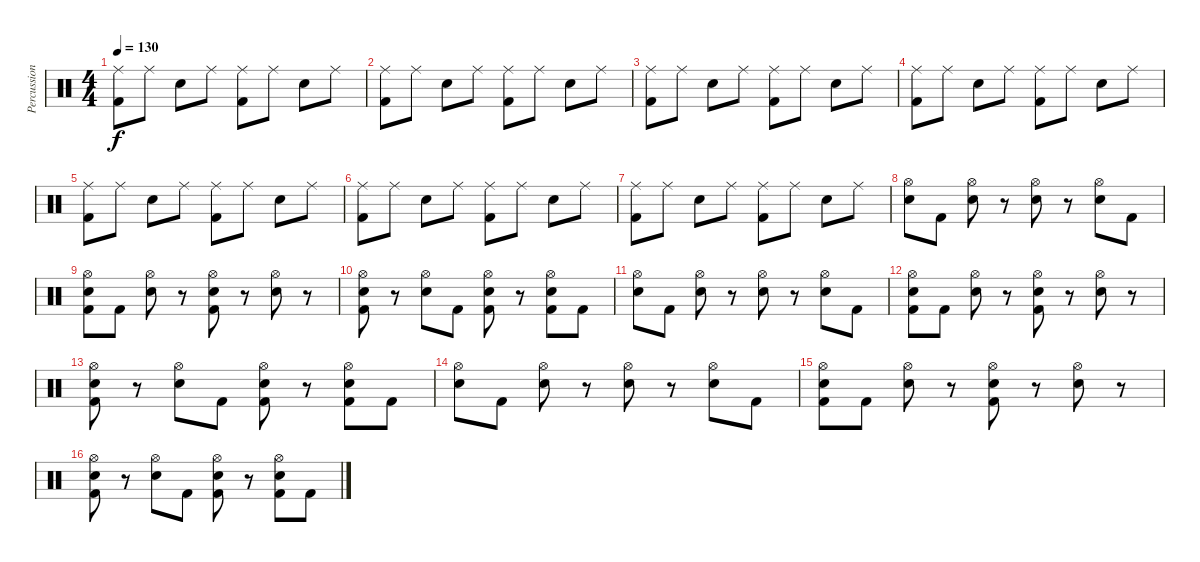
\track ("Percussion" "Percussion") {instrument percussion}
\staff {score}
\articulation defaults
\ts (4 4)
\tempo 130
\clef neutral
\ks c
("Ride (middle)" "Kick (hit) 2").8{dy f} "Ride (middle)".8 "Snare (hit) 2".8 "Ride (middle)".8 ("Ride (middle)" "Kick (hit) 2").8 "Ride (middle)".8 "Snare (hit) 2".8 "Ride (middle)".8 |
("Ride (middle)" "Kick (hit) 2").8 "Ride (middle)".8 "Snare (hit) 2".8 "Ride (middle)".8 ("Ride (middle)" "Kick (hit) 2").8 "Ride (middle)".8 "Snare (hit) 2".8 "Ride (middle)".8 |
("Ride (middle)" "Kick (hit) 2").8 "Ride (middle)".8 "Snare (hit) 2".8 "Ride (middle)".8 ("Ride (middle)" "Kick (hit) 2").8 "Ride (middle)".8 "Snare (hit) 2".8 "Ride (middle)".8 |
("Ride (middle)" "Kick (hit) 2").8 "Ride (middle)".8 "Snare (hit) 2".8 "Ride (middle)".8 ("Ride (middle)" "Kick (hit) 2").8 "Ride (middle)".8 "Snare (hit) 2".8 "Ride (middle)".8 |
("Ride (middle)" "Kick (hit) 2").8 "Ride (middle)".8 "Snare (hit) 2".8 "Ride (middle)".8 ("Ride (middle)" "Kick (hit) 2").8 "Ride (middle)".8 "Snare (hit) 2".8 "Ride (middle)".8 |
("Ride (middle)" "Kick (hit) 2").8 "Ride (middle)".8 "Snare (hit) 2".8 "Ride (middle)".8 ("Ride (middle)" "Kick (hit) 2").8 "Ride (middle)".8 "Snare (hit) 2".8 "Ride (middle)".8 |
("Ride (middle)" "Kick (hit) 2").8 "Ride (middle)".8 "Snare (hit) 2".8 "Ride (middle)".8 ("Ride (middle)" "Kick (hit) 2").8 "Ride (middle)".8 "Snare (hit) 2".8 "Ride (middle)".8 |
("Hi-Hat (open)" "Snare (hit) 2").8 "Kick (hit) 2".8 ("Hi-Hat (open)" "Snare (hit) 2").8 r.8 ("Hi-Hat (open)" "Snare (hit) 2").8 r.8 ("Hi-Hat (open)" "Snare (hit) 2").8 "Kick (hit) 2".8 |
("Hi-Hat (open)" "Snare (hit) 2" "Kick (hit) 2").8 "Kick (hit) 2".8 ("Hi-Hat (open)" "Snare (hit) 2").8 r.8 ("Hi-Hat (open)" "Snare (hit) 2" "Kick (hit) 2").8 r.8 ("Hi-Hat (open)" "Snare (hit) 2").8 r.8 |
("Hi-Hat (open)" "Snare (hit) 2" "Kick (hit) 2").8 r.8 ("Hi-Hat (open)" "Snare (hit) 2").8 "Kick (hit) 2".8 ("Hi-Hat (open)" "Snare (hit) 2" "Kick (hit) 2").8 r.8 ("Hi-Hat (open)" "Snare (hit) 2" "Kick (hit) 2").8 "Kick (hit) 2".8 |
("Hi-Hat (open)" "Snare (hit) 2").8 "Kick (hit) 2".8 ("Hi-Hat (open)" "Snare (hit) 2").8 r.8 ("Hi-Hat (open)" "Snare (hit) 2").8 r.8 ("Hi-Hat (open)" "Snare (hit) 2").8 "Kick (hit) 2".8 |
("Hi-Hat (open)" "Snare (hit) 2" "Kick (hit) 2").8 "Kick (hit) 2".8 ("Hi-Hat (open)" "Snare (hit) 2").8 r.8 ("Hi-Hat (open)" "Snare (hit) 2" "Kick (hit) 2").8 r.8 ("Hi-Hat (open)" "Snare (hit) 2").8 r.8 |
("Hi-Hat (open)" "Snare (hit) 2" "Kick (hit) 2").8 r.8 ("Hi-Hat (open)" "Snare (hit) 2").8 "Kick (hit) 2".8 ("Hi-Hat (open)" "Snare (hit) 2" "Kick (hit) 2").8 r.8 ("Hi-Hat (open)" "Snare (hit) 2" "Kick (hit) 2").8 "Kick (hit) 2".8 |
("Hi-Hat (open)" "Snare (hit) 2").8 "Kick (hit) 2".8 ("Hi-Hat (open)" "Snare (hit) 2").8 r.8 ("Hi-Hat (open)" "Snare (hit) 2").8 r.8 ("Hi-Hat (open)" "Snare (hit) 2").8 "Kick (hit) 2".8 |
("Hi-Hat (open)" "Snare (hit) 2" "Kick (hit) 2").8 "Kick (hit) 2".8 ("Hi-Hat (open)" "Snare (hit) 2").8 r.8 ("Hi-Hat (open)" "Snare (hit) 2" "Kick (hit) 2").8 r.8 ("Hi-Hat (open)" "Snare (hit) 2").8 r.8 |
("Hi-Hat (open)" "Snare (hit) 2" "Kick (hit) 2").8 r.8 ("Hi-Hat (open)" "Snare (hit) 2").8 "Kick (hit) 2".8 ("Hi-Hat (open)" "Snare (hit) 2" "Kick (hit) 2").8 r.8 ("Hi-Hat (open)" "Snare (hit) 2" "Kick (hit) 2").8 "Kick (hit) 2".8
